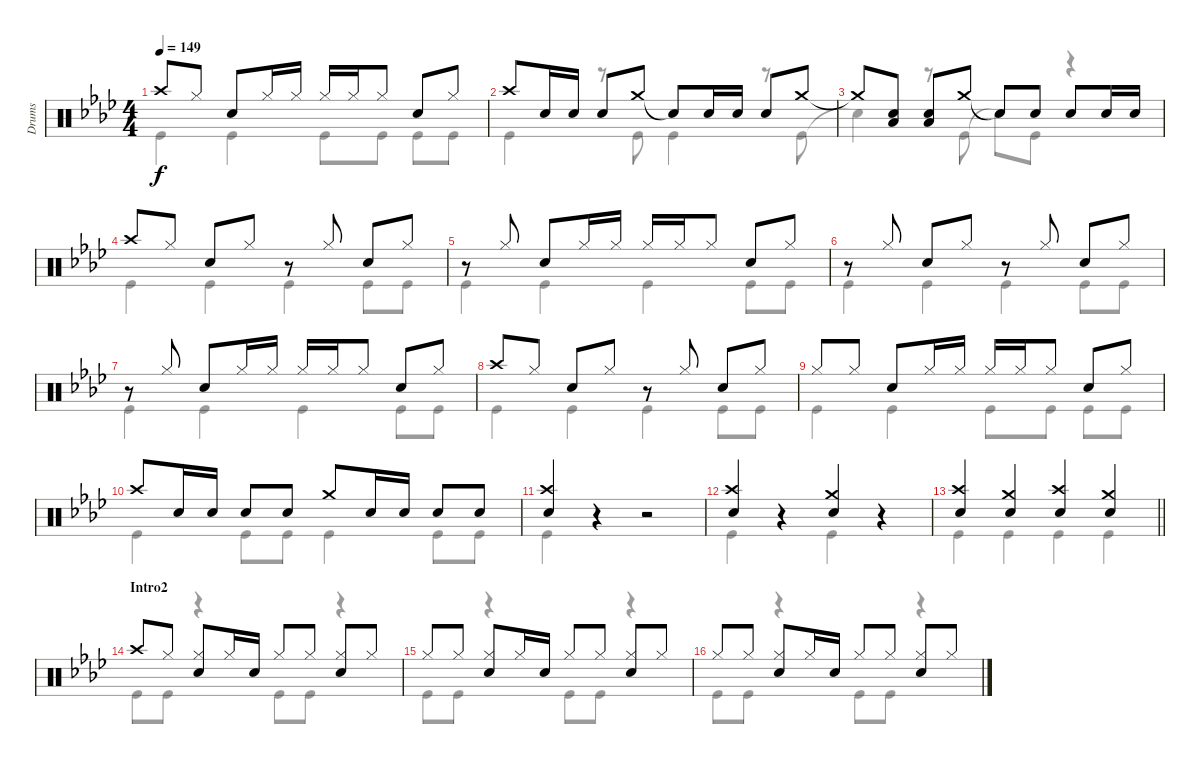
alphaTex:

\track ("Drums" "Drums") {instrument percussion}
\staff {score}
\articulation defaults
\voice
\ts (4 4)
\tempo 149
\clef neutral
\ks ab "Crash high (hit)".8{dy f} "Hi-Hat (closed)".8 "Snare (hit) 2".8 "Hi-Hat (closed)".16 "Hi-Hat (closed)".16 "Hi-Hat (closed)".16 "Hi-Hat (closed)".16 "Hi-Hat (closed)".8 "Snare (hit) 2".8 "Hi-Hat (closed)".8
|
"Crash high (hit)".8 "Snare (hit) 2".16 "Snare (hit) 2".16 "Snare (hit) 2".8 "Crash medium (hit)".8 "Snare (hit)"{t}.8 "Snare (hit) 2".16 "Snare (hit) 2".16 "Snare (hit) 2".8 "Crash medium (hit)".8 |
"Crash medium (hit)"{t}.8 ("Snare (hit) 2" "Low Tom (hit)").8 ("Snare (hit) 2" "Low Tom (hit)").8 "Crash medium (hit)".8 "Snare (hit)"{t}.8 "Snare (hit) 2".8 "Snare (hit) 2".8 "Snare (hit) 2".16 "Snare (hit) 2".16 |
"Crash high (hit)".8 "Hi-Hat (closed)".8 "Snare (hit) 2".8 "Hi-Hat (closed)".8 r.8 "Hi-Hat (closed)".8 "Snare (hit) 2".8 "Hi-Hat (closed)".8 |
r.8 "Hi-Hat (closed)".8 "Snare (hit) 2".8 "Hi-Hat (closed)".16 "Hi-Hat (closed)".16 "Hi-Hat (closed)".16 "Hi-Hat (closed)".16 "Hi-Hat (closed)".8 "Snare (hit) 2".8 "Hi-Hat (closed)".8 |
r.8 "Hi-Hat (closed)".8 "Snare (hit) 2".8 "Hi-Hat (closed)".8 r.8 "Hi-Hat (closed)".8 "Snare (hit) 2".8 "Hi-Hat (closed)".8 |
r.8 "Hi-Hat (closed)".8 "Snare (hit) 2".8 "Hi-Hat (closed)".16 "Hi-Hat (closed)".16 "Hi-Hat (closed)".16 "Hi-Hat (closed)".16 "Hi-Hat (closed)".8 "Snare (hit) 2".8 "Hi-Hat (closed)".8 |
"Crash high (hit)".8 "Hi-Hat (closed)".8 "Snare (hit) 2".8 "Hi-Hat (closed)".8 r.8 "Hi-Hat (closed)".8 "Snare (hit) 2".8 "Hi-Hat (closed)".8 |
"Hi-Hat (closed)".8 "Hi-Hat (closed)".8 "Snare (hit) 2".8 "Hi-Hat (closed)".16 "Hi-Hat (closed)".16 "Hi-Hat (closed)".16 "Hi-Hat (closed)".16 "Hi-Hat (closed)".8 "Snare (hit) 2".8 "Hi-Hat (closed)".8 |
"Crash high (hit)".8 "Snare (hit) 2".16 "Snare (hit) 2".16 "Snare (hit) 2".8 "Snare (hit) 2".8 "Crash medium (hit)".8 "Snare (hit) 2".16 "Snare (hit) 2".16 "Snare (hit) 2".8 "Snare (hit) 2".8 |
("Crash high (hit)" "Snare (hit) 2").4 r.4 r.2 |
("Crash high (hit)" "Snare (hit) 2").4 r.4 ("Crash medium (hit)" "Snare (hit) 2").4 r.4 |
\barLineRight lightlight
("Crash high (hit)" "Snare (hit) 2").4 ("Crash medium (hit)" "Snare (hit) 2").4 ("Crash high (hit)" "Snare (hit) 2").4 ("Crash medium (hit)" "Snare (hit) 2").4 |
\section ("" "Intro2")
"Crash high (hit)".8 "Hi-Hat (closed)".8 ("Hi-Hat (closed)" "Snare (hit) 2").8 "Hi-Hat (closed)".16 "Snare (hit) 2".16 "Hi-Hat (closed)".8 "Hi-Hat (closed)".8 ("Hi-Hat (closed)" "Snare (hit) 2").8 "Hi-Hat (closed)".8 |
"Hi-Hat (closed)".8 "Hi-Hat (closed)".8 ("Hi-Hat (closed)" "Snare (hit) 2").8 "Hi-Hat (closed)".16 "Snare (hit) 2".16 "Hi-Hat (closed)".8 "Hi-Hat (closed)".8 ("Hi-Hat (closed)" "Snare (hit) 2").8 "Hi-Hat (closed)".8 |
"Hi-Hat (closed)".8 "Hi-Hat (closed)".8 ("Hi-Hat (closed)" "Snare (hit) 2").8 "Hi-Hat (closed)".16 "Snare (hit) 2".16 "Hi-Hat (closed)".8 "Hi-Hat (closed)".8 ("Hi-Hat (closed)" "Snare (hit) 2").8 "Hi-Hat (closed)".8
\voice
\clef neutral
\ottava regular
\simile none
\ks ab "Kick (hit)".4{dy f} "Kick (hit)".4 "Kick (hit)".8 "Kick (hit)".8 "Kick (hit)".8 "Kick (hit)".8
|
"Kick (hit)".4 r.8 "Kick (hit)".8 "Kick (hit)".4 r.8 "Kick (hit)".8 |
"Snare (hit)"{t}.4 r.8 "Kick (hit)".8 "Snare (hit)"{t}.8 "Kick (hit)".8 r.4 |
"Kick (hit)".4 "Kick (hit)".4 "Kick (hit)".4 "Kick (hit)".8 "Kick (hit)".8 |
"Kick (hit)".4 "Kick (hit)".4 "Kick (hit)".4 "Kick (hit)".8 "Kick (hit)".8 |
"Kick (hit)".4 "Kick (hit)".4 "Kick (hit)".4 "Kick (hit)".8 "Kick (hit)".8 |
"Kick (hit)".4 "Kick (hit)".4 "Kick (hit)".4 "Kick (hit)".8 "Kick (hit)".8 |
"Kick (hit)".4 "Kick (hit)".4 "Kick (hit)".4 "Kick (hit)".8 "Kick (hit)".8 |
"Kick (hit)".4 "Kick (hit)".4 "Kick (hit)".8 "Kick (hit)".8 "Kick (hit)".8 "Kick (hit)".8 |
"Kick (hit)".4 "Kick (hit)".8 "Kick (hit)".8 "Kick (hit)".4 "Kick (hit)".8 "Kick (hit)".8 |
"Kick (hit)".4 r.4 r.2 |
"Kick (hit)".4 r.4 "Kick (hit)".4 r.4 |
\barLineRight lightlight "Kick (hit)".4 "Kick (hit)".4 "Kick (hit)".4 "Kick (hit)".4
|
"Kick (hit)".8 "Kick (hit)".8 r.4 "Kick (hit)".8 "Kick (hit)".8 r.4 |
"Kick (hit)".8 "Kick (hit)".8 r.4 "Kick (hit)".8 "Kick (hit)".8 r.4 |
"Kick (hit)".8 "Kick (hit)".8 r.4 "Kick (hit)".8 "Kick (hit)".8 r.4
